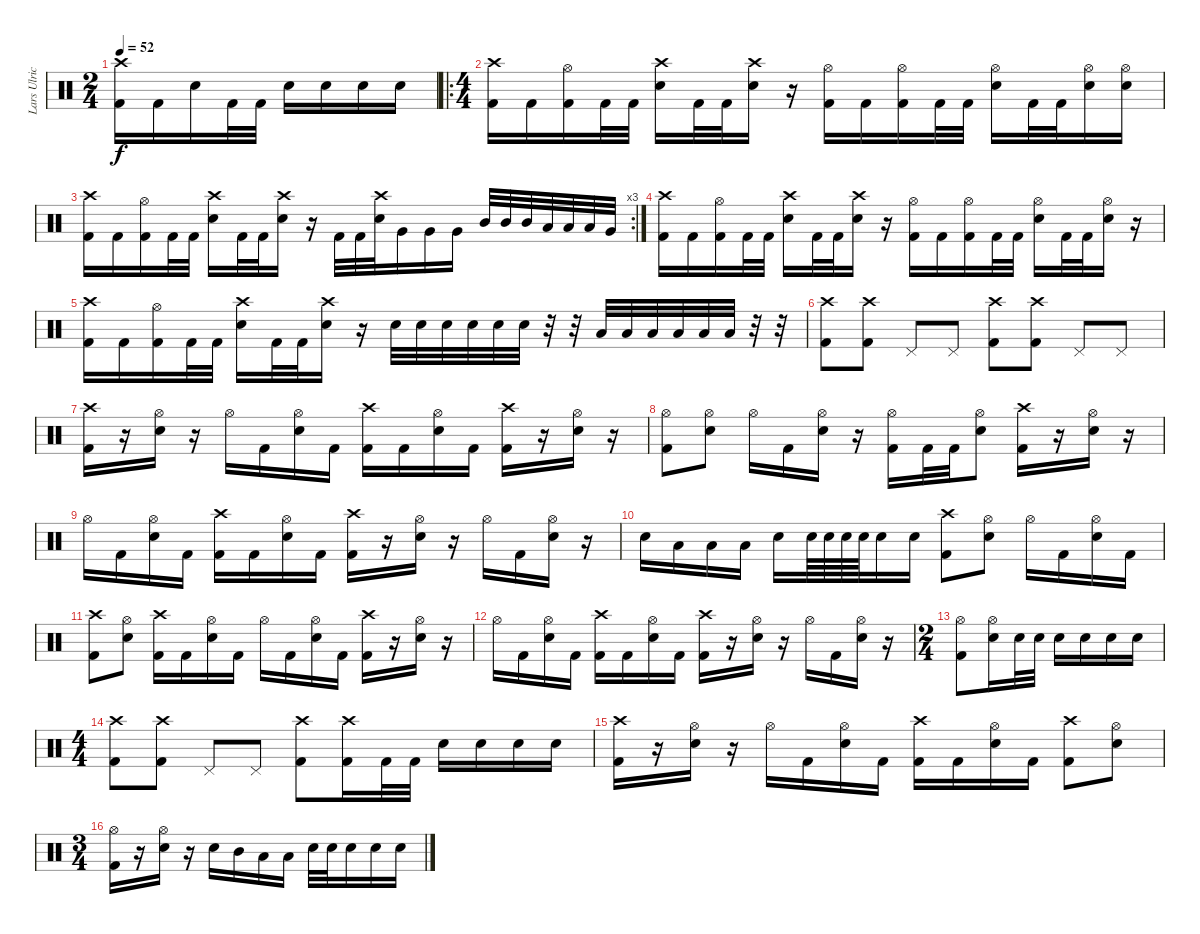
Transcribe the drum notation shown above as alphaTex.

\track ("Lars Ulrich" "Lars Ulric") {instrument percussion}
\staff {score}
\articulation defaults
\ts (2 4)
\tempo 52
\clef neutral
\ks c
("Crash high (hit)" "Kick (hit) 2").16{dy f} "Kick (hit) 2".16 "Snare (hit) 2".16 "Kick (hit) 2".32 "Kick (hit) 2".32 "Snare (hit) 2".16 "Snare (hit) 2".16 "Snare (hit) 2".16 "Snare (hit) 2".16 |
\ro
\ts (4 4)
("Crash high (hit)" "Kick (hit) 2").16 "Kick (hit) 2".16 ("Hi-Hat (open)" "Kick (hit) 2").16 "Kick (hit) 2".32 "Kick (hit) 2".32 ("Crash high (hit)" "Snare (hit) 2").16 "Kick (hit) 2".32 "Kick (hit) 2".32 ("Crash high (hit)" "Snare (hit) 2").16 r.16 ("Hi-Hat (open)" "Kick (hit) 2").16 "Kick (hit) 2".16 ("Hi-Hat (open)" "Kick (hit) 2").16 "Kick (hit) 2".32 "Kick (hit) 2".32 ("Hi-Hat (open)" "Snare (hit) 2").16 "Kick (hit) 2".32 "Kick (hit) 2".32 ("Hi-Hat (open)" "Snare (hit) 2").16 ("Hi-Hat (open)" "Snare (hit) 2").16 |
\rc 3
("Crash high (hit)" "Kick (hit) 2").16 "Kick (hit) 2".16 ("Hi-Hat (open)" "Kick (hit) 2").16 "Kick (hit) 2".32 "Kick (hit) 2".32 ("Crash high (hit)" "Snare (hit) 2").16 "Kick (hit) 2".32 "Kick (hit) 2".32 ("Crash high (hit)" "Snare (hit) 2").16 r.16 "Kick (hit) 2".32 "Kick (hit) 2".32 ("Crash high (hit)" "Snare (hit) 2").32 "Very Low Tom (hit)".16 "Very Low Tom (hit)".16 "Very Low Tom (hit)".16 "Mid Tom (hit)".32 "Mid Tom (hit)".32 "Mid Tom (hit)".32 "Low Tom (hit)".32 "Low Tom (hit)".32 "Low Tom (hit)".32 "Very Low Tom (hit)".32 |
("Crash high (hit)" "Kick (hit) 2").16 "Kick (hit) 2".16 ("Hi-Hat (open)" "Kick (hit) 2").16 "Kick (hit) 2".32 "Kick (hit) 2".32 ("Crash high (hit)" "Snare (hit) 2").16 "Kick (hit) 2".32 "Kick (hit) 2".32 ("Crash high (hit)" "Snare (hit) 2").16 r.16 ("Hi-Hat (open)" "Kick (hit) 2").16 "Kick (hit) 2".16 ("Hi-Hat (open)" "Kick (hit) 2").16 "Kick (hit) 2".32 "Kick (hit) 2".32 ("Hi-Hat (open)" "Snare (hit) 2").16 "Kick (hit) 2".32 "Kick (hit) 2".32 ("Hi-Hat (open)" "Snare (hit) 2").16 r.16 |
("Crash high (hit)" "Kick (hit) 2").16 "Kick (hit) 2".16 ("Hi-Hat (open)" "Kick (hit) 2").16 "Kick (hit) 2".32 "Kick (hit) 2".32 ("Crash high (hit)" "Snare (hit) 2").16 "Kick (hit) 2".32 "Kick (hit) 2".32 ("Crash high (hit)" "Snare (hit) 2").16 r.16 "Snare (hit) 2".32 "Snare (hit) 2".32 "Snare (hit) 2".32 "Snare (hit) 2".32 "Snare (hit) 2".32 "Snare (hit) 2".32 r.32 r.32 "Low Tom (hit)".32 "Low Tom (hit)".32 "Low Tom (hit)".32 "Low Tom (hit)".32 "Low Tom (hit)".32 "Low Tom (hit)".32 r.32 r.32 |
("Crash high (hit)" "Kick (hit) 2").8 ("Crash high (hit)" "Kick (hit) 2").8 "Pedal Hi-Hat (hit)".8 "Pedal Hi-Hat (hit)".8 ("Crash high (hit)" "Kick (hit) 2").8 ("Crash high (hit)" "Kick (hit) 2").8 "Pedal Hi-Hat (hit)".8 "Pedal Hi-Hat (hit)".8 |
("Crash high (hit)" "Kick (hit) 2").16 r.16 ("Hi-Hat (open)" "Snare (hit) 2").16 r.16 "Hi-Hat (open)".16 "Kick (hit) 2".16 ("Hi-Hat (open)" "Snare (hit) 2").16 "Kick (hit) 2".16 ("Crash high (hit)" "Kick (hit) 2").16 "Kick (hit) 2".16 ("Hi-Hat (open)" "Snare (hit) 2").16 "Kick (hit) 2".16 ("Crash high (hit)" "Kick (hit) 2").16 r.16 ("Hi-Hat (open)" "Snare (hit) 2").16 r.16 |
("Hi-Hat (open)" "Kick (hit) 2").8 ("Hi-Hat (open)" "Snare (hit) 2").8 "Hi-Hat (open)".16 "Kick (hit) 2".16 ("Hi-Hat (open)" "Snare (hit) 2").16 r.16 ("Hi-Hat (open)" "Kick (hit) 2").16 "Kick (hit) 2".32 "Kick (hit) 2".32 ("Hi-Hat (open)" "Snare (hit) 2").8 ("Crash high (hit)" "Kick (hit) 2").16 r.16 ("Hi-Hat (open)" "Snare (hit) 2").16 r.16 |
"Hi-Hat (open)".16 "Kick (hit) 2".16 ("Hi-Hat (open)" "Snare (hit) 2").16 "Kick (hit) 2".16 ("Crash high (hit)" "Kick (hit) 2").16 "Kick (hit) 2".16 ("Hi-Hat (open)" "Snare (hit) 2").16 "Kick (hit) 2".16 ("Crash high (hit)" "Kick (hit) 2").16 r.16 ("Hi-Hat (open)" "Snare (hit) 2").16 r.16 "Hi-Hat (open)".16 "Kick (hit) 2".16 ("Hi-Hat (open)" "Snare (hit) 2").16 r.16 |
"Snare (hit) 2".16 "Low Tom (hit)".16 "Low Tom (hit)".16 "Low Tom (hit)".16 "Snare (hit) 2".16 "Snare (hit) 2".64 "Snare (hit) 2".64 "Snare (hit) 2".64 "Snare (hit) 2".64 "Snare (hit) 2".16 "Snare (hit) 2".16 ("Crash high (hit)" "Kick (hit) 2").8 ("Hi-Hat (open)" "Snare (hit) 2").8 "Hi-Hat (open)".16 "Kick (hit) 2".16 ("Hi-Hat (open)" "Snare (hit) 2").16 "Kick (hit) 2".16 |
("Crash high (hit)" "Kick (hit) 2").8 ("Hi-Hat (open)" "Snare (hit) 2").8 ("Crash high (hit)" "Kick (hit) 2").16 "Kick (hit) 2".16 ("Hi-Hat (open)" "Snare (hit) 2").16 "Kick (hit) 2".16 "Hi-Hat (open)".16 "Kick (hit) 2".16 ("Hi-Hat (open)" "Snare (hit) 2").16 "Kick (hit) 2".16 ("Crash high (hit)" "Kick (hit) 2").16 r.16 ("Hi-Hat (open)" "Snare (hit) 2").16 r.16 |
"Hi-Hat (open)".16 "Kick (hit) 2".16 ("Hi-Hat (open)" "Snare (hit) 2").16 "Kick (hit) 2".16 ("Crash high (hit)" "Kick (hit) 2").16 "Kick (hit) 2".16 ("Hi-Hat (open)" "Snare (hit) 2").16 "Kick (hit) 2".16 ("Crash high (hit)" "Kick (hit) 2").16 r.16 ("Hi-Hat (open)" "Snare (hit) 2").16 r.16 "Hi-Hat (open)".16 "Kick (hit) 2".16 ("Hi-Hat (open)" "Snare (hit) 2").16 r.16 |
\ts (2 4)
("Hi-Hat (open)" "Kick (hit) 2").8 ("Hi-Hat (open)" "Snare (hit) 2").16 "Snare (hit) 2".32 "Snare (hit) 2".32 "Snare (hit) 2".16 "Snare (hit) 2".16 "Snare (hit) 2".16 "Snare (hit) 2".16 |
\ts (4 4)
("Crash high (hit)" "Kick (hit) 2").8 ("Crash high (hit)" "Kick (hit) 2").8 "Pedal Hi-Hat (hit)".8 "Pedal Hi-Hat (hit)".8 ("Crash high (hit)" "Kick (hit) 2").8 ("Crash high (hit)" "Kick (hit) 2").16 "Kick (hit) 2".32 "Kick (hit) 2".32 "Snare (hit) 2".16 "Snare (hit) 2".16 "Snare (hit) 2".16 "Snare (hit) 2".16 |
("Crash high (hit)" "Kick (hit) 2").16 r.16 ("Hi-Hat (open)" "Snare (hit) 2").16 r.16 "Hi-Hat (open)".16 "Kick (hit) 2".16 ("Hi-Hat (open)" "Snare (hit) 2").16 "Kick (hit) 2".16 ("Crash high (hit)" "Kick (hit) 2").16 "Kick (hit) 2".16 ("Hi-Hat (open)" "Snare (hit) 2").16 "Kick (hit) 2".16 ("Crash high (hit)" "Kick (hit) 2").8 ("Hi-Hat (open)" "Snare (hit) 2").8 |
\ts (3 4)
("Hi-Hat (open)" "Kick (hit) 2").16 r.16 ("Hi-Hat (open)" "Snare (hit) 2").16 r.16 "Snare (hit) 2".16 "Mid Tom (hit)".16 "Low Tom (hit)".16 "Low Tom (hit)".16 "Snare (hit) 2".32 "Snare (hit) 2".32 "Snare (hit) 2".16 "Snare (hit) 2".16 "Snare (hit) 2".16
